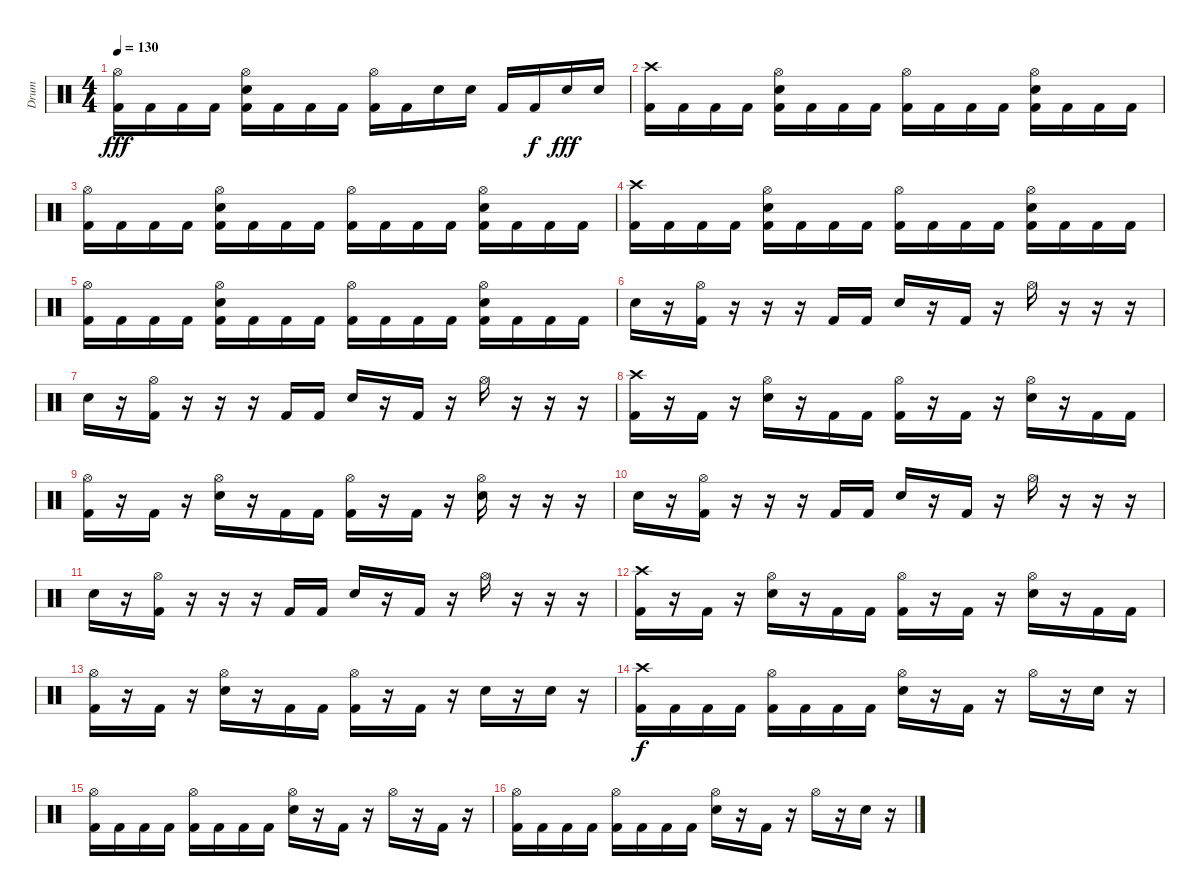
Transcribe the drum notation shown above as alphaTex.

\track ("Drum" "Drum") {instrument percussion}
\staff {score}
\articulation defaults
\ts (4 4)
\tempo 130
\clef neutral
\ks c
("Hi-Hat (open)" "Kick (hit) 2").16{dy fff} "Kick (hit) 2".16 "Kick (hit) 2".16 "Kick (hit) 2".16 ("Hi-Hat (open)" "Snare (hit) 2" "Kick (hit) 2").16 "Kick (hit) 2".16 "Kick (hit) 2".16 "Kick (hit) 2".16 ("Hi-Hat (open)" "Kick (hit) 2").16 "Kick (hit) 2".16 "Snare (hit) 2".16 "Snare (hit) 2".16 "Kick (hit) 2".16 "Kick (hit) 2".16{dy f} "Snare (hit) 2".16{dy fff} "Snare (hit) 2".16 |
("Crash high (hit)" "Kick (hit) 2").16 "Kick (hit) 2".16 "Kick (hit) 2".16 "Kick (hit) 2".16 ("Hi-Hat (open)" "Snare (hit) 2" "Kick (hit) 2").16 "Kick (hit) 2".16 "Kick (hit) 2".16 "Kick (hit) 2".16 ("Hi-Hat (open)" "Kick (hit) 2").16 "Kick (hit) 2".16 "Kick (hit) 2".16 "Kick (hit) 2".16 ("Hi-Hat (open)" "Snare (hit) 2" "Kick (hit) 2").16 "Kick (hit) 2".16 "Kick (hit) 2".16 "Kick (hit) 2".16 |
("Hi-Hat (open)" "Kick (hit) 2").16 "Kick (hit) 2".16 "Kick (hit) 2".16 "Kick (hit) 2".16 ("Hi-Hat (open)" "Snare (hit) 2" "Kick (hit) 2").16 "Kick (hit) 2".16 "Kick (hit) 2".16 "Kick (hit) 2".16 ("Hi-Hat (open)" "Kick (hit) 2").16 "Kick (hit) 2".16 "Kick (hit) 2".16 "Kick (hit) 2".16 ("Hi-Hat (open)" "Snare (hit) 2" "Kick (hit) 2").16 "Kick (hit) 2".16 "Kick (hit) 2".16 "Kick (hit) 2".16 |
("Crash high (hit)" "Kick (hit) 2").16 "Kick (hit) 2".16 "Kick (hit) 2".16 "Kick (hit) 2".16 ("Hi-Hat (open)" "Snare (hit) 2" "Kick (hit) 2").16 "Kick (hit) 2".16 "Kick (hit) 2".16 "Kick (hit) 2".16 ("Hi-Hat (open)" "Kick (hit) 2").16 "Kick (hit) 2".16 "Kick (hit) 2".16 "Kick (hit) 2".16 ("Hi-Hat (open)" "Snare (hit) 2" "Kick (hit) 2").16 "Kick (hit) 2".16 "Kick (hit) 2".16 "Kick (hit) 2".16 |
("Hi-Hat (open)" "Kick (hit) 2").16 "Kick (hit) 2".16 "Kick (hit) 2".16 "Kick (hit) 2".16 ("Hi-Hat (open)" "Snare (hit) 2" "Kick (hit) 2").16 "Kick (hit) 2".16 "Kick (hit) 2".16 "Kick (hit) 2".16 ("Hi-Hat (open)" "Kick (hit) 2").16 "Kick (hit) 2".16 "Kick (hit) 2".16 "Kick (hit) 2".16 ("Hi-Hat (open)" "Snare (hit) 2" "Kick (hit) 2").16 "Kick (hit) 2".16 "Kick (hit) 2".16 "Kick (hit) 2".16 |
"Snare (hit) 2".16 r.16 ("Hi-Hat (open)" "Kick (hit) 2").16 r.16 r.16 r.16 "Kick (hit) 2".16 "Kick (hit) 2".16 "Snare (hit) 2".16 r.16 "Kick (hit) 2".16 r.16 "Hi-Hat (open)".16 r.16 r.16 r.16 |
"Snare (hit) 2".16 r.16 ("Hi-Hat (open)" "Kick (hit) 2").16 r.16 r.16 r.16 "Kick (hit) 2".16 "Kick (hit) 2".16 "Snare (hit) 2".16 r.16 "Kick (hit) 2".16 r.16 "Hi-Hat (open)".16 r.16 r.16 r.16 |
("Crash high (hit)" "Kick (hit) 2").16 r.16 "Kick (hit) 2".16 r.16 ("Hi-Hat (open)" "Snare (hit) 2").16 r.16 "Kick (hit) 2".16 "Kick (hit) 2".16 ("Hi-Hat (open)" "Kick (hit) 2").16 r.16 "Kick (hit) 2".16 r.16 ("Hi-Hat (open)" "Snare (hit) 2").16 r.16 "Kick (hit) 2".16 "Kick (hit) 2".16 |
("Hi-Hat (open)" "Kick (hit) 2").16 r.16 "Kick (hit) 2".16 r.16 ("Hi-Hat (open)" "Snare (hit) 2").16 r.16 "Kick (hit) 2".16 "Kick (hit) 2".16 ("Hi-Hat (open)" "Kick (hit) 2").16 r.16 "Kick (hit) 2".16 r.16 ("Hi-Hat (open)" "Snare (hit) 2").16 r.16 r.16 r.16 |
"Snare (hit) 2".16 r.16 ("Hi-Hat (open)" "Kick (hit) 2").16 r.16 r.16 r.16 "Kick (hit) 2".16 "Kick (hit) 2".16 "Snare (hit) 2".16 r.16 "Kick (hit) 2".16 r.16 "Hi-Hat (open)".16 r.16 r.16 r.16 |
"Snare (hit) 2".16 r.16 ("Hi-Hat (open)" "Kick (hit) 2").16 r.16 r.16 r.16 "Kick (hit) 2".16 "Kick (hit) 2".16 "Snare (hit) 2".16 r.16 "Kick (hit) 2".16 r.16 "Hi-Hat (open)".16 r.16 r.16 r.16 |
("Crash high (hit)" "Kick (hit) 2").16 r.16 "Kick (hit) 2".16 r.16 ("Hi-Hat (open)" "Snare (hit) 2").16 r.16 "Kick (hit) 2".16 "Kick (hit) 2".16 ("Hi-Hat (open)" "Kick (hit) 2").16 r.16 "Kick (hit) 2".16 r.16 ("Hi-Hat (open)" "Snare (hit) 2").16 r.16 "Kick (hit) 2".16 "Kick (hit) 2".16 |
("Hi-Hat (open)" "Kick (hit) 2").16 r.16 "Kick (hit) 2".16 r.16 ("Hi-Hat (open)" "Snare (hit) 2").16 r.16 "Kick (hit) 2".16 "Kick (hit) 2".16 ("Hi-Hat (open)" "Kick (hit) 2").16 r.16 "Kick (hit) 2".16 r.16 "Snare (hit) 2".16 r.16 "Snare (hit) 2".16 r.16 |
("Crash high (hit)" "Kick (hit) 2").16{dy f} "Kick (hit) 2".16 "Kick (hit) 2".16 "Kick (hit) 2".16 ("Hi-Hat (open)" "Kick (hit) 2").16 "Kick (hit) 2".16 "Kick (hit) 2".16 "Kick (hit) 2".16 ("Hi-Hat (open)" "Snare (hit) 2").16 r.16 "Kick (hit) 2".16 r.16 "Hi-Hat (open)".16 r.16 "Snare (hit) 2".16 r.16 |
("Hi-Hat (open)" "Kick (hit) 2").16 "Kick (hit) 2".16 "Kick (hit) 2".16 "Kick (hit) 2".16 ("Hi-Hat (open)" "Kick (hit) 2").16 "Kick (hit) 2".16 "Kick (hit) 2".16 "Kick (hit) 2".16 ("Hi-Hat (open)" "Snare (hit) 2").16 r.16 "Kick (hit) 2".16 r.16 "Hi-Hat (open)".16 r.16 "Kick (hit) 2".16 r.16 |
("Hi-Hat (open)" "Kick (hit) 2").16 "Kick (hit) 2".16 "Kick (hit) 2".16 "Kick (hit) 2".16 ("Hi-Hat (open)" "Kick (hit) 2").16 "Kick (hit) 2".16 "Kick (hit) 2".16 "Kick (hit) 2".16 ("Hi-Hat (open)" "Snare (hit) 2").16 r.16 "Kick (hit) 2".16 r.16 "Hi-Hat (open)".16 r.16 "Snare (hit) 2".16 r.16
